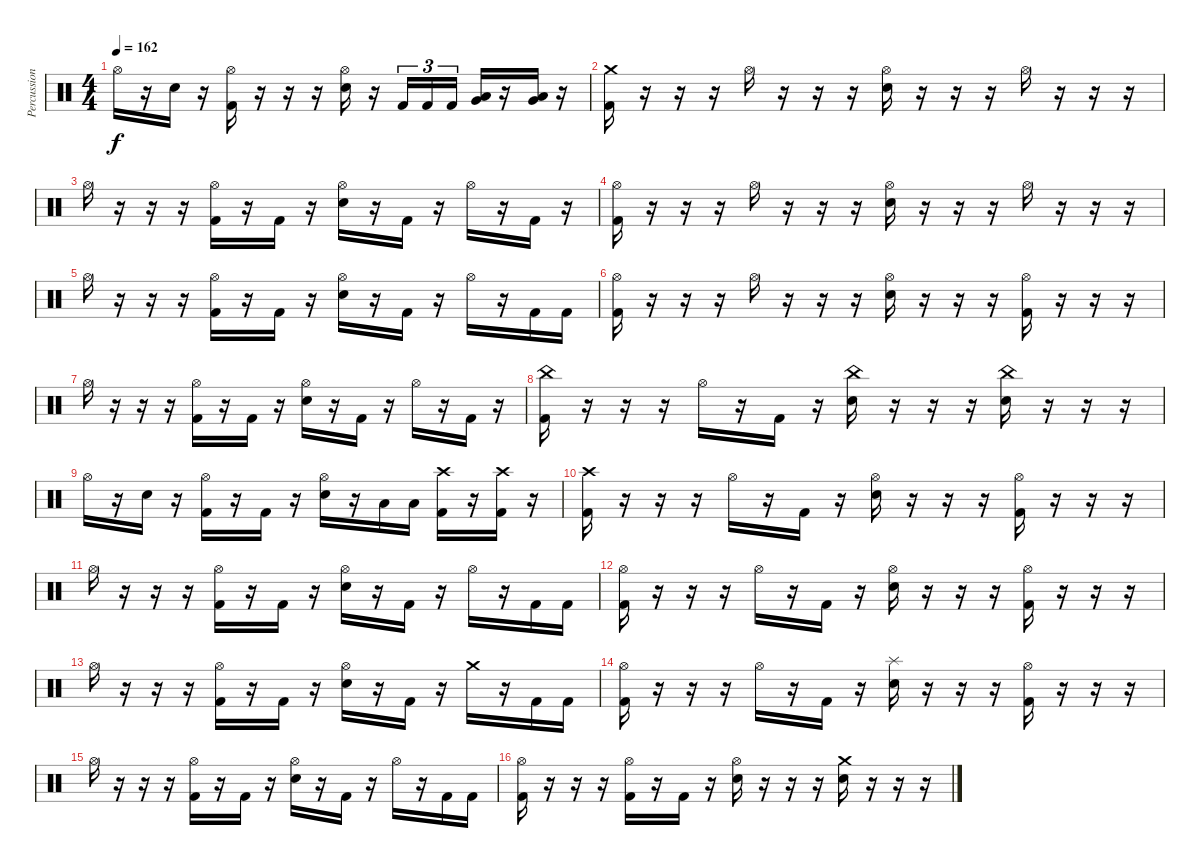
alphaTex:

\track ("Percussion" "Percussion") {instrument percussion}
\staff {score}
\articulation defaults
\ts (4 4)
\tempo 162
\clef neutral
\ks c "Hi-Hat (open)".16{dy f}
r.16 "Electric Snare (hit)".16 r.16 ("Hi-Hat (open)" "Kick (hit) 2").16 r.16 r.16 r.16 ("Hi-Hat (open)" "Electric Snare (hit)").16 r.16 "Kick (hit) 2".16{tu (3 2)} "Kick (hit) 2".16{tu (3 2)} "Kick (hit) 2".16{tu (3 2)} ("Low Tom (hit)" "Very Low Tom (hit)").16 r.16 ("Low Tom (hit)" "Very Low Tom (hit)").16 r.16 |
("Crash medium (hit)" "Kick (hit) 2").16 r.16 r.16 r.16 "Hi-Hat (open)".16 r.16 r.16 r.16 ("Hi-Hat (open)" "Electric Snare (hit)").16 r.16 r.16 r.16 "Hi-Hat (open)".16 r.16 r.16 r.16 |
"Hi-Hat (open)".16 r.16 r.16 r.16 ("Hi-Hat (open)" "Kick (hit) 2").16 r.16 "Kick (hit) 2".16 r.16 ("Hi-Hat (open)" "Electric Snare (hit)").16 r.16 "Kick (hit) 2".16 r.16 "Hi-Hat (open)".16 r.16 "Kick (hit) 2".16 r.16 |
("Hi-Hat (open)" "Kick (hit) 2").16 r.16 r.16 r.16 "Hi-Hat (open)".16 r.16 r.16 r.16 ("Hi-Hat (open)" "Electric Snare (hit)").16 r.16 r.16 r.16 "Hi-Hat (open)".16 r.16 r.16 r.16 |
"Hi-Hat (open)".16 r.16 r.16 r.16 ("Hi-Hat (open)" "Kick (hit) 2").16 r.16 "Kick (hit) 2".16 r.16 ("Hi-Hat (open)" "Electric Snare (hit)").16 r.16 "Kick (hit) 2".16 r.16 "Hi-Hat (open)".16 r.16 "Kick (hit) 2".16 "Kick (hit) 2".16 |
("Hi-Hat (open)" "Kick (hit) 2").16 r.16 r.16 r.16 "Hi-Hat (open)".16 r.16 r.16 r.16 ("Hi-Hat (open)" "Electric Snare (hit)").16 r.16 r.16 r.16 ("Hi-Hat (open)" "Kick (hit) 2").16 r.16 r.16 r.16 |
"Hi-Hat (open)".16 r.16 r.16 r.16 ("Hi-Hat (open)" "Kick (hit) 2").16 r.16 "Kick (hit) 2".16 r.16 ("Hi-Hat (open)" "Electric Snare (hit)").16 r.16 "Kick (hit) 2".16 r.16 "Hi-Hat (open)".16 r.16 "Kick (hit) 2".16 r.16 |
("China (hit)" "Kick (hit) 2").16 r.16 r.16 r.16 "Hi-Hat (open)".16 r.16 "Kick (hit) 2".16 r.16 ("China (hit)" "Electric Snare (hit)").16 r.16 r.16 r.16 ("China (hit)" "Electric Snare (hit)").16 r.16 r.16 r.16 |
"Hi-Hat (open)".16 r.16 "Electric Snare (hit)".16 r.16 ("Hi-Hat (open)" "Kick (hit) 2").16 r.16 "Kick (hit) 2".16 r.16 ("Hi-Hat (open)" "Electric Snare (hit)").16 r.16 "Low Tom (hit)".16 "Low Tom (hit)".16 ("Crash high (hit)" "Kick (hit) 2").16 r.16 ("Crash high (hit)" "Kick (hit) 2").16 r.16 |
("Crash high (hit)" "Kick (hit) 2").16 r.16 r.16 r.16 "Hi-Hat (open)".16 r.16 "Kick (hit) 2".16 r.16 ("Hi-Hat (open)" "Electric Snare (hit)").16 r.16 r.16 r.16 ("Hi-Hat (open)" "Kick (hit) 2").16 r.16 r.16 r.16 |
"Hi-Hat (open)".16 r.16 r.16 r.16 ("Hi-Hat (open)" "Kick (hit) 2").16 r.16 "Kick (hit) 2".16 r.16 ("Hi-Hat (open)" "Electric Snare (hit)").16 r.16 "Kick (hit) 2".16 r.16 "Hi-Hat (open)".16 r.16 "Kick (hit) 2".16 "Kick (hit) 2".16 |
("Hi-Hat (open)" "Kick (hit) 2").16 r.16 r.16 r.16 "Hi-Hat (open)".16 r.16 "Kick (hit) 2".16 r.16 ("Hi-Hat (open)" "Electric Snare (hit)").16 r.16 r.16 r.16 ("Hi-Hat (open)" "Kick (hit) 2").16 r.16 r.16 r.16 |
"Hi-Hat (open)".16 r.16 r.16 r.16 ("Hi-Hat (open)" "Kick (hit) 2").16 r.16 "Kick (hit) 2".16 r.16 ("Hi-Hat (open)" "Electric Snare (hit)").16 r.16 "Kick (hit) 2".16 r.16 "Crash medium (hit)".16 r.16 "Kick (hit) 2".16 "Kick (hit) 2".16 |
("Hi-Hat (open)" "Kick (hit) 2").16 r.16 r.16 r.16 "Hi-Hat (open)".16 r.16 "Kick (hit) 2".16 r.16 ("Splash (hit)" "Electric Snare (hit)").16 r.16 r.16 r.16 ("Hi-Hat (open)" "Kick (hit) 2").16 r.16 r.16 r.16 |
"Hi-Hat (open)".16 r.16 r.16 r.16 ("Hi-Hat (open)" "Kick (hit) 2").16 r.16 "Kick (hit) 2".16 r.16 ("Hi-Hat (open)" "Electric Snare (hit)").16 r.16 "Kick (hit) 2".16 r.16 "Hi-Hat (open)".16 r.16 "Kick (hit) 2".16 "Kick (hit) 2".16 |
("Hi-Hat (open)" "Kick (hit) 2").16 r.16 r.16 r.16 ("Hi-Hat (open)" "Kick (hit) 2").16 r.16 "Kick (hit) 2".16 r.16 ("Hi-Hat (open)" "Electric Snare (hit)").16 r.16 r.16 r.16 ("Crash medium (hit)" "Electric Snare (hit)").16 r.16 r.16 r.16
